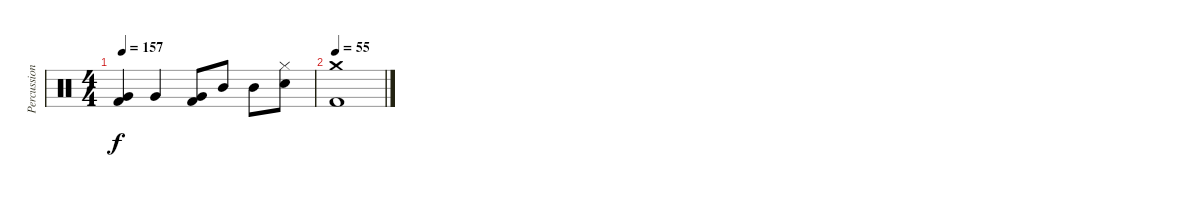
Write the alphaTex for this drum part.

\track ("Percussion" "Percussion") {instrument percussion}
\staff {score}
\articulation defaults
\ts (4 4)
\tempo 157
\clef neutral
\ks c
("Kick (hit) 2" "Very Low Tom (hit)").4{dy f} "Very Low Tom (hit)".4 ("Kick (hit) 2" "Very Low Tom (hit)").8 "Mid Tom (hit)".8 "Mid Tom (hit)".8 ("Snare (hit) 2" "Hi-Hat (closed)").8 |
\tempo 55
("Kick (hit) 2" "Crash medium (hit)").1
